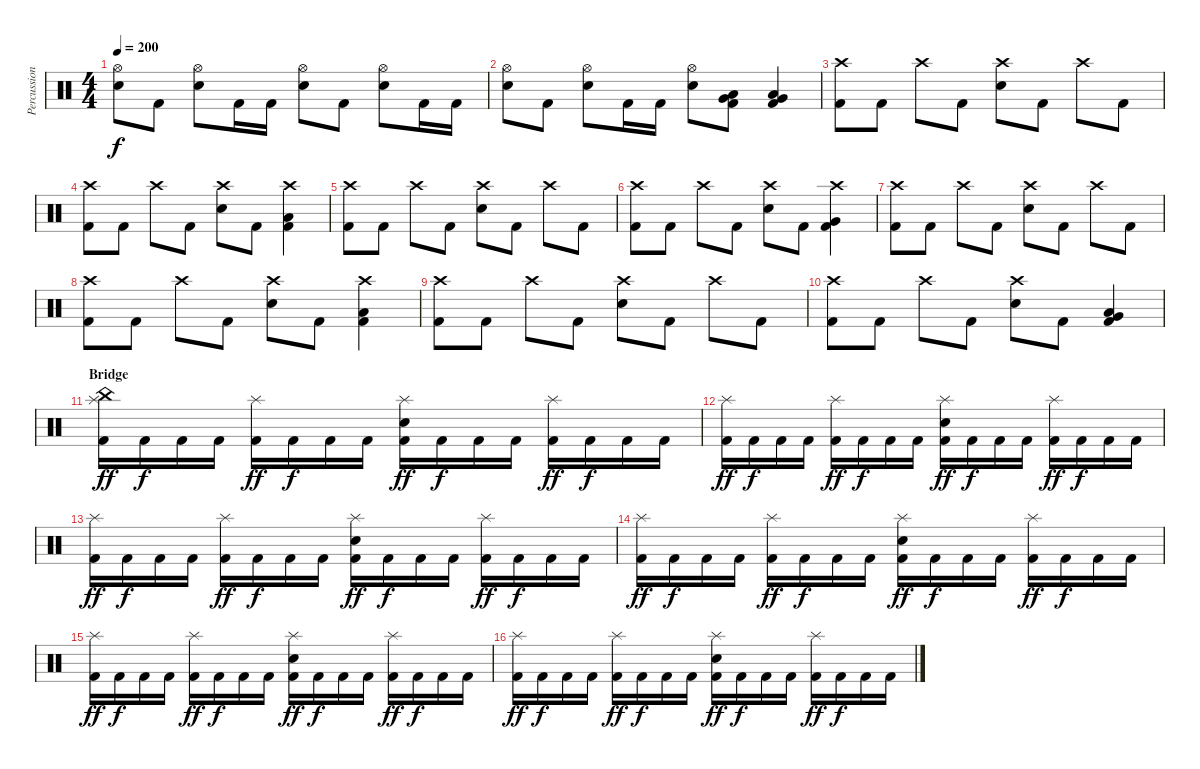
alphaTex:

\track ("Percussions" "Percussion") {instrument percussion}
\staff {score}
\articulation defaults
\ts (4 4)
\tempo 200
\clef neutral
\ks c
("Hi-Hat (open)" "Electric Snare (hit)").8{dy f} "Kick (hit) 2".8 ("Hi-Hat (open)" "Electric Snare (hit)").8 "Kick (hit) 2".16 "Kick (hit) 2".16 ("Hi-Hat (open)" "Electric Snare (hit)").8 "Kick (hit) 2".8 ("Hi-Hat (open)" "Electric Snare (hit)").8 "Kick (hit) 2".16 "Kick (hit) 2".16 |
("Hi-Hat (open)" "Electric Snare (hit)").8 "Kick (hit) 2".8 ("Hi-Hat (open)" "Electric Snare (hit)").8 "Kick (hit) 2".16 "Kick (hit) 2".16 ("Hi-Hat (open)" "Electric Snare (hit)").8 ("Very Low Tom (hit)" "Low Floor Tom (hit)" "Kick (hit) 2").8 ("Very Low Tom (hit)" "Low Floor Tom (hit)" "Kick (hit) 2").4 |
("Crash high (hit)" "Kick (hit) 2").8 "Kick (hit) 2".8 "Crash high (hit)".8 "Kick (hit) 2".8 ("Crash high (hit)" "Electric Snare (hit)").8 "Kick (hit) 2".8 "Crash high (hit)".8 "Kick (hit) 2".8 |
("Crash high (hit)" "Kick (hit) 2").8 "Kick (hit) 2".8 "Crash high (hit)".8 "Kick (hit) 2".8 ("Crash high (hit)" "Electric Snare (hit)").8 "Kick (hit) 2".8 ("Crash high (hit)" "Low Floor Tom (hit)" "Kick (hit) 2").4 |
("Crash high (hit)" "Kick (hit) 2").8 "Kick (hit) 2".8 "Crash high (hit)".8 "Kick (hit) 2".8 ("Crash high (hit)" "Electric Snare (hit)").8 "Kick (hit) 2".8 "Crash high (hit)".8 "Kick (hit) 2".8 |
("Crash high (hit)" "Kick (hit) 2").8 "Kick (hit) 2".8 "Crash high (hit)".8 "Kick (hit) 2".8 ("Crash high (hit)" "Electric Snare (hit)").8 "Kick (hit) 2".8 ("Crash high (hit)" "Very Low Tom (hit)" "Kick (hit) 2").4 |
("Crash high (hit)" "Kick (hit) 2").8 "Kick (hit) 2".8 "Crash high (hit)".8 "Kick (hit) 2".8 ("Crash high (hit)" "Electric Snare (hit)").8 "Kick (hit) 2".8 "Crash high (hit)".8 "Kick (hit) 2".8 |
("Crash high (hit)" "Kick (hit) 2").8 "Kick (hit) 2".8 "Crash high (hit)".8 "Kick (hit) 2".8 ("Crash high (hit)" "Electric Snare (hit)").8 "Kick (hit) 2".8 ("Crash high (hit)" "Low Floor Tom (hit)" "Kick (hit) 2").4 |
("Crash high (hit)" "Kick (hit) 2").8 "Kick (hit) 2".8 "Crash high (hit)".8 "Kick (hit) 2".8 ("Crash high (hit)" "Electric Snare (hit)").8 "Kick (hit) 2".8 "Crash high (hit)".8 "Kick (hit) 2".8 |
("Crash high (hit)" "Kick (hit) 2").8 "Kick (hit) 2".8 "Crash high (hit)".8 "Kick (hit) 2".8 ("Crash high (hit)" "Electric Snare (hit)").8 "Kick (hit) 2".8 ("Very Low Tom (hit)" "Low Floor Tom (hit)" "Kick (hit) 2").4 |
\section ("" "Bridge")
("China (hit)" "Splash (hit)" "Kick (hit) 2").16{dy ff} "Kick (hit) 2".16{dy f} "Kick (hit) 2".16 "Kick (hit) 2".16 ("Splash (hit)" "Kick (hit) 2").16{dy ff} "Kick (hit) 2".16{dy f} "Kick (hit) 2".16 "Kick (hit) 2".16 ("Splash (hit)" "Electric Snare (hit)" "Kick (hit) 2").16{dy ff} "Kick (hit) 2".16{dy f} "Kick (hit) 2".16 "Kick (hit) 2".16 ("Splash (hit)" "Kick (hit) 2").16{dy ff} "Kick (hit) 2".16{dy f} "Kick (hit) 2".16 "Kick (hit) 2".16 |
("Splash (hit)" "Kick (hit) 2").16{dy ff} "Kick (hit) 2".16{dy f} "Kick (hit) 2".16 "Kick (hit) 2".16 ("Splash (hit)" "Kick (hit) 2").16{dy ff} "Kick (hit) 2".16{dy f} "Kick (hit) 2".16 "Kick (hit) 2".16 ("Splash (hit)" "Electric Snare (hit)" "Kick (hit) 2").16{dy ff} "Kick (hit) 2".16{dy f} "Kick (hit) 2".16 "Kick (hit) 2".16 ("Splash (hit)" "Kick (hit) 2").16{dy ff} "Kick (hit) 2".16{dy f} "Kick (hit) 2".16 "Kick (hit) 2".16 |
("Splash (hit)" "Kick (hit) 2").16{dy ff} "Kick (hit) 2".16{dy f} "Kick (hit) 2".16 "Kick (hit) 2".16 ("Splash (hit)" "Kick (hit) 2").16{dy ff} "Kick (hit) 2".16{dy f} "Kick (hit) 2".16 "Kick (hit) 2".16 ("Splash (hit)" "Electric Snare (hit)" "Kick (hit) 2").16{dy ff} "Kick (hit) 2".16{dy f} "Kick (hit) 2".16 "Kick (hit) 2".16 ("Splash (hit)" "Kick (hit) 2").16{dy ff} "Kick (hit) 2".16{dy f} "Kick (hit) 2".16 "Kick (hit) 2".16 |
("Splash (hit)" "Kick (hit) 2").16{dy ff} "Kick (hit) 2".16{dy f} "Kick (hit) 2".16 "Kick (hit) 2".16 ("Splash (hit)" "Kick (hit) 2").16{dy ff} "Kick (hit) 2".16{dy f} "Kick (hit) 2".16 "Kick (hit) 2".16 ("Splash (hit)" "Electric Snare (hit)" "Kick (hit) 2").16{dy ff} "Kick (hit) 2".16{dy f} "Kick (hit) 2".16 "Kick (hit) 2".16 ("Splash (hit)" "Kick (hit) 2").16{dy ff} "Kick (hit) 2".16{dy f} "Kick (hit) 2".16 "Kick (hit) 2".16 |
("Splash (hit)" "Kick (hit) 2").16{dy ff} "Kick (hit) 2".16{dy f} "Kick (hit) 2".16 "Kick (hit) 2".16 ("Splash (hit)" "Kick (hit) 2").16{dy ff} "Kick (hit) 2".16{dy f} "Kick (hit) 2".16 "Kick (hit) 2".16 ("Splash (hit)" "Electric Snare (hit)" "Kick (hit) 2").16{dy ff} "Kick (hit) 2".16{dy f} "Kick (hit) 2".16 "Kick (hit) 2".16 ("Splash (hit)" "Kick (hit) 2").16{dy ff} "Kick (hit) 2".16{dy f} "Kick (hit) 2".16 "Kick (hit) 2".16 |
("Splash (hit)" "Kick (hit) 2").16{dy ff} "Kick (hit) 2".16{dy f} "Kick (hit) 2".16 "Kick (hit) 2".16 ("Splash (hit)" "Kick (hit) 2").16{dy ff} "Kick (hit) 2".16{dy f} "Kick (hit) 2".16 "Kick (hit) 2".16 ("Splash (hit)" "Electric Snare (hit)" "Kick (hit) 2").16{dy ff} "Kick (hit) 2".16{dy f} "Kick (hit) 2".16 "Kick (hit) 2".16 ("Splash (hit)" "Kick (hit) 2").16{dy ff} "Kick (hit) 2".16{dy f} "Kick (hit) 2".16 "Kick (hit) 2".16
